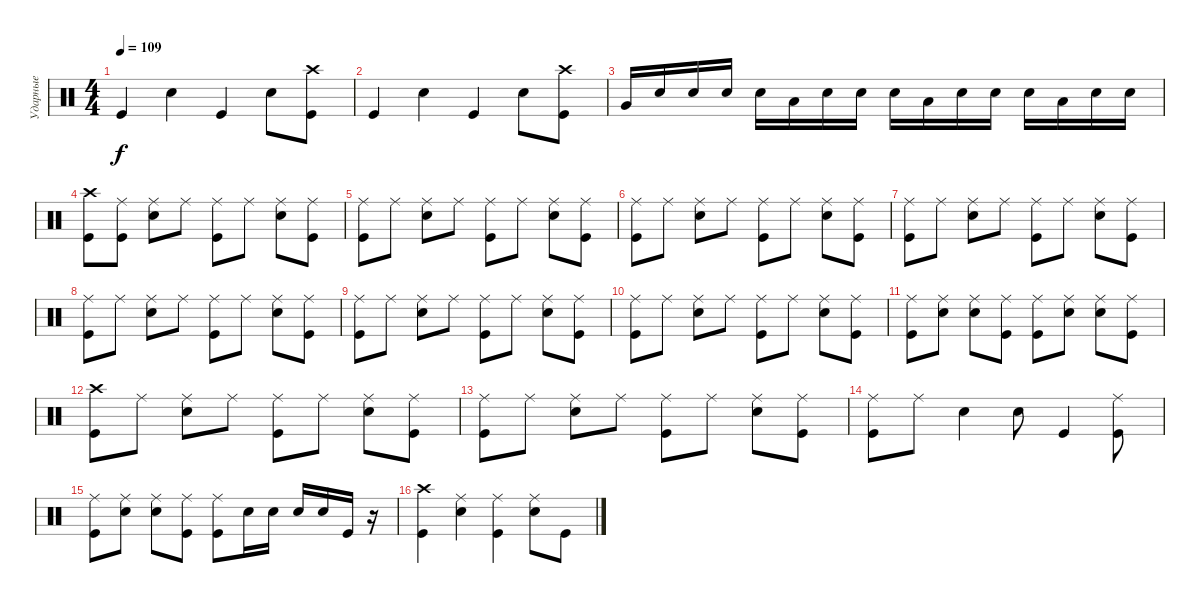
\track ("Ударные" "Ударные") {instrument percussion}
\staff {score}
\articulation defaults
\ts (4 4)
\tempo 109
\clef neutral
\ks c "Kick (hit)".4{dy f} "Snare (hit) 2".4 "Kick (hit)".4 "Snare (hit) 2".8
("Kick (hit)" "Crash high (hit)").8 |
"Kick (hit)".4 "Snare (hit) 2".4 "Kick (hit)".4 "Snare (hit) 2".8 ("Kick (hit)" "Crash high (hit)").8 |
"Very Low Tom (hit)".16 "Snare (hit) 2".16 "Snare (hit) 2".16 "Snare (hit) 2".16 "Snare (hit) 2".16 "Low Floor Tom (hit)".16 "Snare (hit) 2".16 "Snare (hit) 2".16 "Snare (hit) 2".16 "Low Floor Tom (hit)".16 "Snare (hit) 2".16 "Snare (hit) 2".16 "Snare (hit) 2".16 "Low Floor Tom (hit)".16 "Snare (hit) 2".16 "Snare (hit) 2".16 |
("Crash high (hit)" "Kick (hit)").8 ("Ride (middle)" "Kick (hit)").8 ("Ride (middle)" "Snare (hit) 2").8 "Ride (middle)".8 ("Kick (hit)" "Ride (middle)").8 "Ride (middle)".8 ("Snare (hit) 2" "Ride (middle)").8 ("Kick (hit)" "Ride (middle)").8 |
("Kick (hit)" "Ride (middle)").8 "Ride (middle)".8 ("Snare (hit) 2" "Ride (middle)").8 "Ride (middle)".8 ("Kick (hit)" "Ride (middle)").8 "Ride (middle)".8 ("Snare (hit) 2" "Ride (middle)").8 ("Kick (hit)" "Ride (middle)").8 |
("Kick (hit)" "Ride (middle)").8 "Ride (middle)".8 ("Snare (hit) 2" "Ride (middle)").8 "Ride (middle)".8 ("Kick (hit)" "Ride (middle)").8 "Ride (middle)".8 ("Snare (hit) 2" "Ride (middle)").8 ("Kick (hit)" "Ride (middle)").8 |
("Kick (hit)" "Ride (middle)").8 "Ride (middle)".8 ("Snare (hit) 2" "Ride (middle)").8 "Ride (middle)".8 ("Kick (hit)" "Ride (middle)").8 "Ride (middle)".8 ("Snare (hit) 2" "Ride (middle)").8 ("Kick (hit)" "Ride (middle)").8 |
("Kick (hit)" "Ride (middle)").8 "Ride (middle)".8 ("Snare (hit) 2" "Ride (middle)").8 "Ride (middle)".8 ("Kick (hit)" "Ride (middle)").8 "Ride (middle)".8 ("Snare (hit) 2" "Ride (middle)").8 ("Kick (hit)" "Ride (middle)").8 |
("Kick (hit)" "Ride (middle)").8 "Ride (middle)".8 ("Snare (hit) 2" "Ride (middle)").8 "Ride (middle)".8 ("Kick (hit)" "Ride (middle)").8 "Ride (middle)".8 ("Snare (hit) 2" "Ride (middle)").8 ("Kick (hit)" "Ride (middle)").8 |
("Kick (hit)" "Ride (middle)").8 "Ride (middle)".8 ("Snare (hit) 2" "Ride (middle)").8 "Ride (middle)".8 ("Kick (hit)" "Ride (middle)").8 "Ride (middle)".8 ("Snare (hit) 2" "Ride (middle)").8 ("Kick (hit)" "Ride (middle)").8 |
("Kick (hit)" "Ride (middle)").8 ("Snare (hit) 2" "Ride (middle)").8 ("Snare (hit) 2" "Ride (middle)").8 ("Kick (hit)" "Ride (middle)").8 ("Kick (hit)" "Ride (middle)").8 ("Snare (hit) 2" "Ride (middle)").8 ("Snare (hit) 2" "Ride (middle)").8 ("Kick (hit)" "Ride (middle)").8 |
("Kick (hit)" "Crash high (hit)").8 "Ride (middle)".8 ("Snare (hit) 2" "Ride (middle)").8 "Ride (middle)".8 ("Kick (hit)" "Ride (middle)").8 "Ride (middle)".8 ("Snare (hit) 2" "Ride (middle)").8 ("Kick (hit)" "Ride (middle)").8 |
("Kick (hit)" "Ride (middle)").8 "Ride (middle)".8 ("Snare (hit) 2" "Ride (middle)").8 "Ride (middle)".8 ("Kick (hit)" "Ride (middle)").8 "Ride (middle)".8 ("Snare (hit) 2" "Ride (middle)").8 ("Kick (hit)" "Ride (middle)").8 |
("Kick (hit)" "Ride (middle)").8 "Ride (middle)".8 "Snare (hit) 2".4 "Snare (hit) 2".8 "Kick (hit)".4 ("Kick (hit)" "Ride (middle)").8 |
("Kick (hit)" "Ride (middle)").8 ("Snare (hit) 2" "Ride (middle)").8 ("Snare (hit) 2" "Ride (middle)").8 ("Kick (hit)" "Ride (middle)").8 ("Kick (hit)" "Ride (middle)").8 "Snare (hit) 2".16 "Snare (hit) 2".16 "Snare (hit) 2".16 "Snare (hit) 2".16 "Kick (hit)".16 r.16 |
("Kick (hit)" "Crash high (hit)").4 ("Snare (hit) 2" "Ride (middle)").4 ("Kick (hit)" "Ride (middle)").4 ("Snare (hit) 2" "Ride (middle)").8 "Kick (hit)".8
